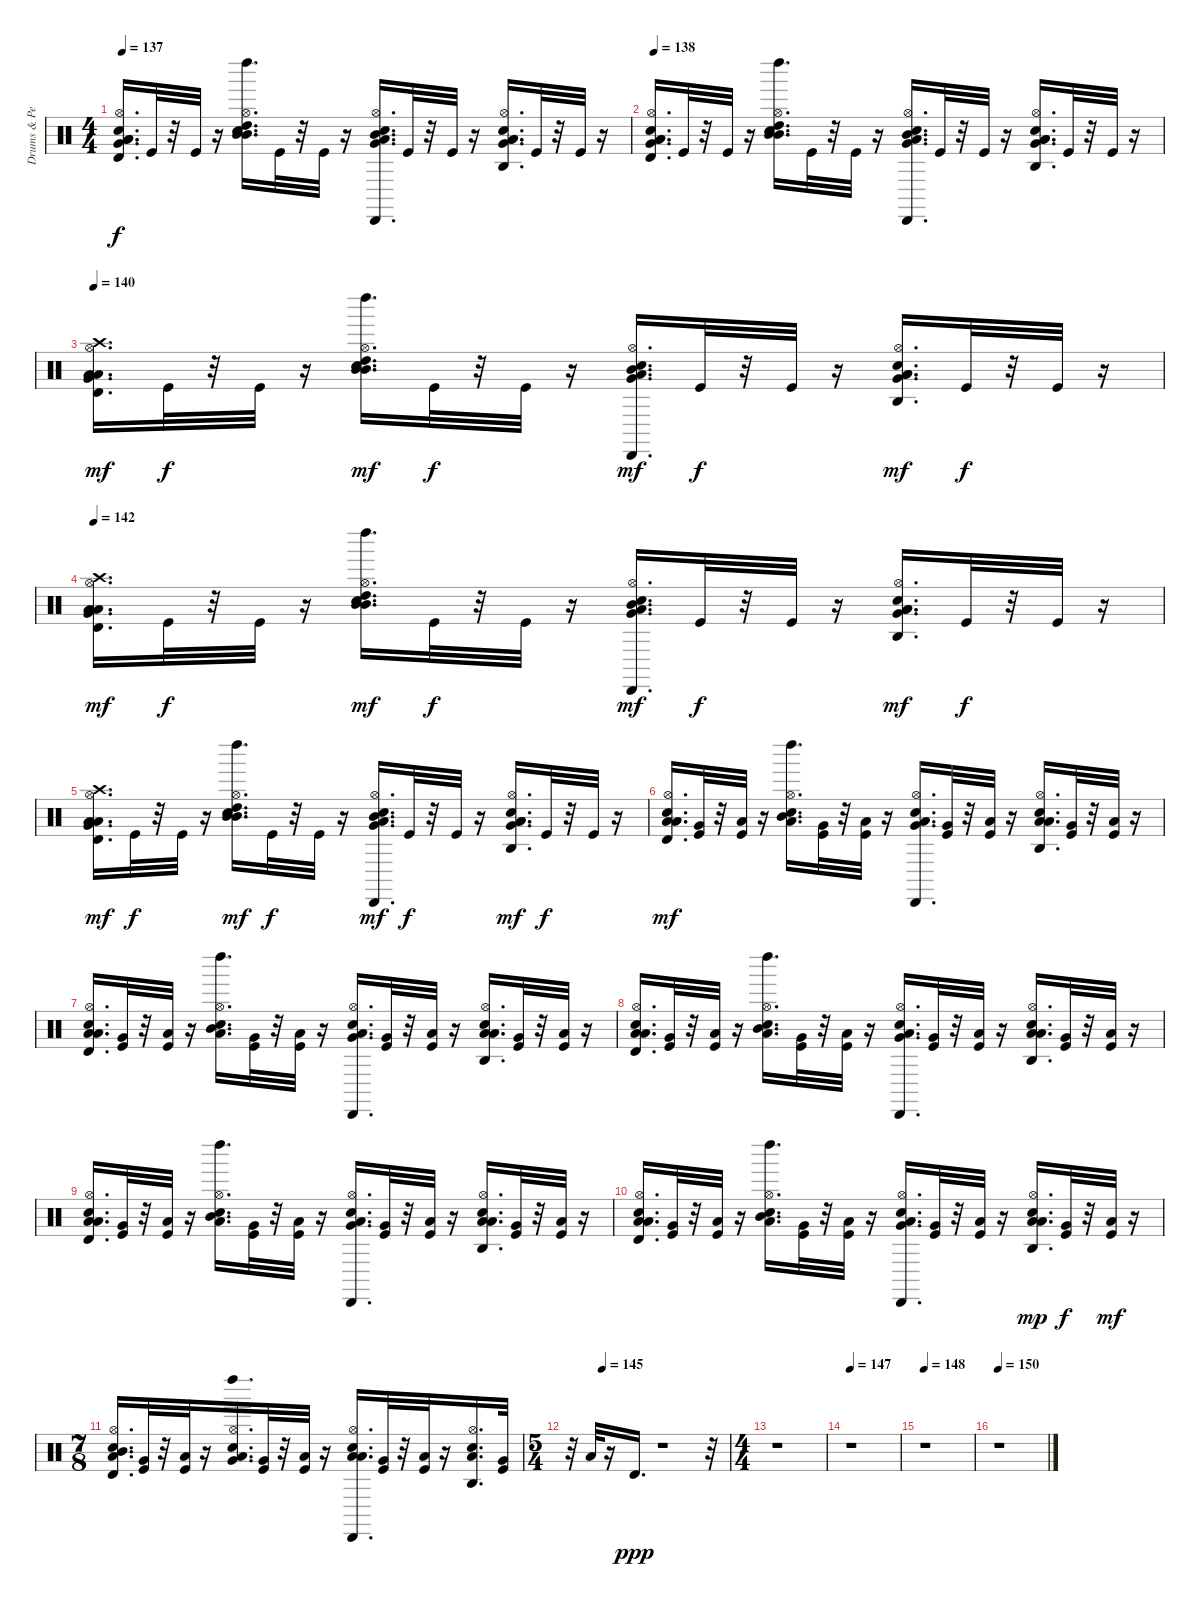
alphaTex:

\track ("Drums & Percussion" "Drums & Pe") {instrument percussion}
\staff {score}
\articulation defaults
\ts (4 4)
\tempo 137
\clef neutral
\ks c
("Timbale high (hit)" "Very Low Tom (hit)" "Low Floor Tom (hit)" "Low Floor Tom (hit)" "Hi-Hat (open)" "Snare (hit) 2").16{d dy f} "Kick (hit)".32 r.32 "Kick (hit)".32 r.16 ("Left Maraca (hit)" "High Tom (hit)" "Mid Tom (hit)" "Mid Tom (hit)" "Hi-Hat (open)" "Snare (hit) 2").16{d} "Kick (hit)".32 r.32 "Kick (hit)".32 r.16 ("Cabasa (hit)" "Mid Tom (hit)" "Low Tom (hit)" "Very Low Tom (hit)" "Hi-Hat (open)" "Snare (hit) 2").16{d} "Kick (hit)".32 r.32 "Kick (hit)".32 r.16 ("Agogo high (hit)" "Low Tom (hit)" "Very Low Tom (hit)" "Low Floor Tom (hit)" "Hi-Hat (open)" "Snare (hit) 2").16{d} "Kick (hit)".32 r.32 "Kick (hit)".32 r.16 |
\tempo 138
("Timbale high (hit)" "Very Low Tom (hit)" "Low Floor Tom (hit)" "Low Floor Tom (hit)" "Hi-Hat (open)" "Snare (hit) 2").16{d} "Kick (hit)".32 r.32 "Kick (hit)".32 r.16 ("Left Maraca (hit)" "Mid Tom (hit)" "High Tom (hit)" "Mid Tom (hit)" "Hi-Hat (open)" "Snare (hit) 2").16{d} "Kick (hit)".32 r.32 "Kick (hit)".32 r.16 ("Cabasa (hit)" "Low Tom (hit)" "Mid Tom (hit)" "Very Low Tom (hit)" "Hi-Hat (open)" "Snare (hit) 2").16{d} "Kick (hit)".32 r.32 "Kick (hit)".32 r.16 ("Agogo high (hit)" "Very Low Tom (hit)" "Low Tom (hit)" "Low Floor Tom (hit)" "Hi-Hat (open)" "Snare (hit) 2").16{d} "Kick (hit)".32 r.32 "Kick (hit)".32 r.16 |
\tempo 140
("Timbale high (hit)" "Low Floor Tom (hit)" "Very Low Tom (hit)" "Crash high (hit)" "Low Floor Tom (hit)" "Hi-Hat (open)").16{d dy mf} "Kick (hit)".32{dy f} r.32 "Kick (hit)".32 r.16 ("Left Maraca (hit)" "Mid Tom (hit)" "High Tom (hit)" "Mid Tom (hit)" "Hi-Hat (open)" "Snare (hit) 2").16{d dy mf} "Kick (hit)".32{dy f} r.32 "Kick (hit)".32 r.16 ("Cabasa (hit)" "Low Tom (hit)" "Mid Tom (hit)" "Very Low Tom (hit)" "Hi-Hat (open)" "Snare (hit) 2").16{d dy mf} "Kick (hit)".32{dy f} r.32 "Kick (hit)".32 r.16 ("Agogo high (hit)" "Very Low Tom (hit)" "Low Tom (hit)" "Low Floor Tom (hit)" "Hi-Hat (open)" "Snare (hit) 2").16{d dy mf} "Kick (hit)".32{dy f} r.32 "Kick (hit)".32 r.16 |
\tempo 142
("Timbale high (hit)" "Very Low Tom (hit)" "Low Floor Tom (hit)" "Crash high (hit)" "Low Floor Tom (hit)" "Hi-Hat (open)").16{d dy mf} "Kick (hit)".32{dy f} r.32 "Kick (hit)".32 r.16 ("Left Maraca (hit)" "Mid Tom (hit)" "High Tom (hit)" "Mid Tom (hit)" "Hi-Hat (open)" "Snare (hit) 2").16{d dy mf} "Kick (hit)".32{dy f} r.32 "Kick (hit)".32 r.16 ("Cabasa (hit)" "Low Tom (hit)" "Mid Tom (hit)" "Very Low Tom (hit)" "Hi-Hat (open)" "Snare (hit) 2").16{d dy mf} "Kick (hit)".32{dy f} r.32 "Kick (hit)".32 r.16 ("Agogo high (hit)" "Very Low Tom (hit)" "Low Tom (hit)" "Low Floor Tom (hit)" "Hi-Hat (open)" "Snare (hit) 2").16{d dy mf} "Kick (hit)".32{dy f} r.32 "Kick (hit)".32 r.16 |
("Timbale high (hit)" "Very Low Tom (hit)" "Low Floor Tom (hit)" "Crash high (hit)" "Low Floor Tom (hit)" "Hi-Hat (open)").16{d dy mf} "Kick (hit)".32{dy f} r.32 "Kick (hit)".32 r.16 ("Left Maraca (hit)" "Mid Tom (hit)" "High Tom (hit)" "Mid Tom (hit)" "Hi-Hat (open)" "Snare (hit) 2").16{d dy mf} "Kick (hit)".32{dy f} r.32 "Kick (hit)".32 r.16 ("Cabasa (hit)" "Low Tom (hit)" "Mid Tom (hit)" "Very Low Tom (hit)" "Hi-Hat (open)" "Snare (hit) 2").16{d dy mf} "Kick (hit)".32{dy f} r.32 "Kick (hit)".32 r.16 ("Agogo high (hit)" "Very Low Tom (hit)" "Low Tom (hit)" "Low Floor Tom (hit)" "Hi-Hat (open)" "Snare (hit) 2").16{d dy mf} "Kick (hit)".32{dy f} r.32 "Kick (hit)".32 r.16 |
("Timbale high (hit)" "Low Tom (hit)" "Low Floor Tom (hit)" "Hi-Hat (open)" "Snare (hit) 2").16{d dy mf} ("Very Low Tom (hit)" "Kick (hit)").32 r.32 ("Low Floor Tom (hit)" "Kick (hit)").32 r.16 ("Left Maraca (hit)" "Low Tom (hit)" "Mid Tom (hit)" "Hi-Hat (open)" "Snare (hit) 2").16{d} ("Very Low Tom (hit)" "Kick (hit)").32 r.32 ("Low Floor Tom (hit)" "Kick (hit)").32 r.16 ("Cabasa (hit)" "Low Tom (hit)" "Very Low Tom (hit)" "Hi-Hat (open)" "Snare (hit) 2").16{d} ("Very Low Tom (hit)" "Kick (hit)").32 r.32 ("Low Floor Tom (hit)" "Kick (hit)").32 r.16 ("Agogo high (hit)" "Low Tom (hit)" "Low Floor Tom (hit)" "Hi-Hat (open)" "Snare (hit) 2").16{d} ("Very Low Tom (hit)" "Kick (hit)").32 r.32 ("Low Floor Tom (hit)" "Kick (hit)").32 r.16 |
("Timbale high (hit)" "Low Tom (hit)" "Low Floor Tom (hit)" "Hi-Hat (open)" "Snare (hit) 2").16{d} ("Very Low Tom (hit)" "Kick (hit)").32 r.32 ("Low Floor Tom (hit)" "Kick (hit)").32 r.16 ("Left Maraca (hit)" "Low Tom (hit)" "Mid Tom (hit)" "Hi-Hat (open)" "Snare (hit) 2").16{d} ("Very Low Tom (hit)" "Kick (hit)").32 r.32 ("Low Floor Tom (hit)" "Kick (hit)").32 r.16 ("Cabasa (hit)" "Low Tom (hit)" "Very Low Tom (hit)" "Hi-Hat (open)" "Snare (hit) 2").16{d} ("Very Low Tom (hit)" "Kick (hit)").32 r.32 ("Low Floor Tom (hit)" "Kick (hit)").32 r.16 ("Agogo high (hit)" "Low Tom (hit)" "Low Floor Tom (hit)" "Hi-Hat (open)" "Snare (hit) 2").16{d} ("Very Low Tom (hit)" "Kick (hit)").32 r.32 ("Low Floor Tom (hit)" "Kick (hit)").32 r.16 |
("Timbale high (hit)" "Low Tom (hit)" "Low Floor Tom (hit)" "Hi-Hat (open)" "Snare (hit) 2").16{d} ("Very Low Tom (hit)" "Kick (hit)").32 r.32 ("Low Floor Tom (hit)" "Kick (hit)").32 r.16 ("Left Maraca (hit)" "Low Tom (hit)" "Mid Tom (hit)" "Hi-Hat (open)" "Snare (hit) 2").16{d} ("Very Low Tom (hit)" "Kick (hit)").32 r.32 ("Low Floor Tom (hit)" "Kick (hit)").32 r.16 ("Cabasa (hit)" "Low Tom (hit)" "Very Low Tom (hit)" "Hi-Hat (open)" "Snare (hit) 2").16{d} ("Very Low Tom (hit)" "Kick (hit)").32 r.32 ("Low Floor Tom (hit)" "Kick (hit)").32 r.16 ("Agogo high (hit)" "Low Tom (hit)" "Low Floor Tom (hit)" "Hi-Hat (open)" "Snare (hit) 2").16{d} ("Very Low Tom (hit)" "Kick (hit)").32 r.32 ("Low Floor Tom (hit)" "Kick (hit)").32 r.16 |
("Timbale high (hit)" "Low Tom (hit)" "Low Floor Tom (hit)" "Hi-Hat (open)" "Snare (hit) 2").16{d} ("Very Low Tom (hit)" "Kick (hit)").32 r.32 ("Low Floor Tom (hit)" "Kick (hit)").32 r.16 ("Left Maraca (hit)" "Low Tom (hit)" "Mid Tom (hit)" "Hi-Hat (open)" "Snare (hit) 2").16{d} ("Very Low Tom (hit)" "Kick (hit)").32 r.32 ("Low Floor Tom (hit)" "Kick (hit)").32 r.16 ("Cabasa (hit)" "Low Tom (hit)" "Very Low Tom (hit)" "Hi-Hat (open)" "Snare (hit) 2").16{d} ("Very Low Tom (hit)" "Kick (hit)").32 r.32 ("Low Floor Tom (hit)" "Kick (hit)").32 r.16 ("Agogo high (hit)" "Low Tom (hit)" "Low Floor Tom (hit)" "Hi-Hat (open)" "Snare (hit) 2").16{d} ("Very Low Tom (hit)" "Kick (hit)").32 r.32 ("Low Floor Tom (hit)" "Kick (hit)").32 r.16 |
("Timbale high (hit)" "Low Tom (hit)" "Low Floor Tom (hit)" "Hi-Hat (open)" "Snare (hit) 2").16{d} ("Very Low Tom (hit)" "Kick (hit)").32 r.32 ("Low Floor Tom (hit)" "Kick (hit)").32 r.16 ("Left Maraca (hit)" "Low Tom (hit)" "Mid Tom (hit)" "Hi-Hat (open)" "Snare (hit) 2").16{d} ("Very Low Tom (hit)" "Kick (hit)").32 r.32 ("Low Floor Tom (hit)" "Kick (hit)").32 r.16 ("Cabasa (hit)" "Low Tom (hit)" "Very Low Tom (hit)" "Hi-Hat (open)" "Snare (hit) 2").16{d} ("Very Low Tom (hit)" "Kick (hit)").32 r.32 ("Low Floor Tom (hit)" "Kick (hit)").32 r.16 ("Agogo high (hit)" "Low Tom (hit)" "Low Floor Tom (hit)" "Hi-Hat (open)" "Snare (hit) 2").16{d dy mp} ("Very Low Tom (hit)" "Kick (hit)").32{dy f} r.32 ("Low Floor Tom (hit)" "Kick (hit)").32{dy mf} r.16 |
\ts (7 8)
("Timbale high (hit)" "Low Tom (hit)" "Mid Tom (hit)" "Hi-Hat (open)" "Snare (hit) 2").16{d} ("Very Low Tom (hit)" "Kick (hit)").32 r.32 ("Low Floor Tom (hit)" "Kick (hit)").32 r.16 ("Left Maraca (hit)" "Low Tom (hit)" "Very Low Tom (hit)" "Hi-Hat (open)" "Snare (hit) 2").16{d} ("Very Low Tom (hit)" "Kick (hit)").32 r.32 ("Low Floor Tom (hit)" "Kick (hit)").32 r.16 ("Cabasa (hit)" "Low Tom (hit)" "Low Floor Tom (hit)" "Hi-Hat (open)" "Snare (hit) 2").16{d} ("Very Low Tom (hit)" "Kick (hit)").32 r.32 ("Low Floor Tom (hit)" "Kick (hit)").32 r.16 ("Agogo high (hit)" "Low Tom (hit)" "Hi-Hat (open)" "Snare (hit) 2").16{d} ("Very Low Tom (hit)" "Kick (hit)").32 |
\ts (5 4)
\tempo (145 0.2)
r.32 "Low Floor Tom (hit)".32 r.16 "Timbale high (hit)".16{d dy ppp} r.1 r.32 |
\ts (4 4)
r.1 |
\tempo 147
r.1 |
\tempo 148
r.1 |
\tempo 150
r.1
